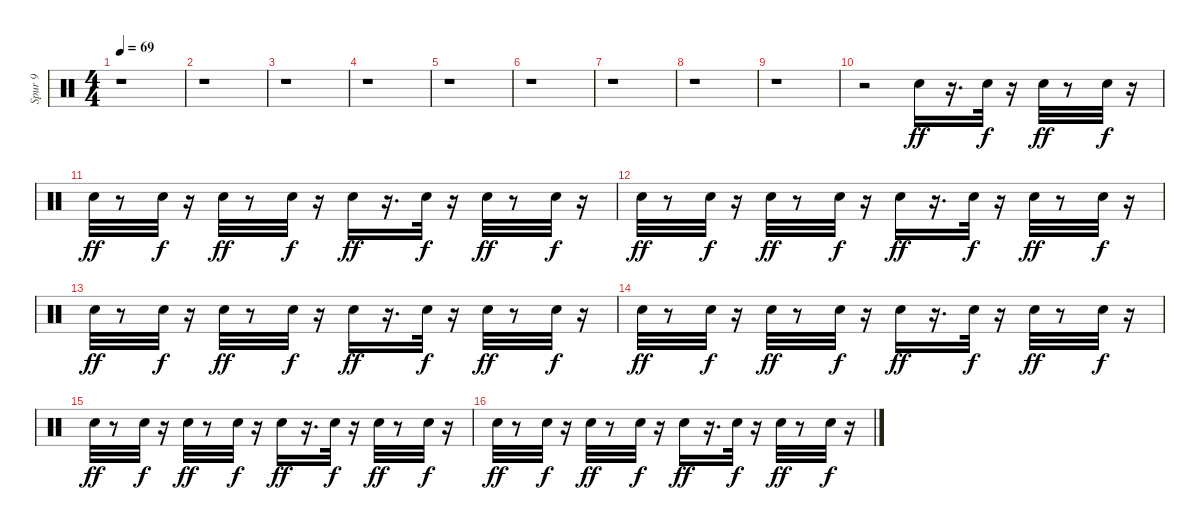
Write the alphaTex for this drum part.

\track ("Spur 9" "Spur 9") {instrument percussion}
\staff {score}
\articulation defaults
\ts (4 4)
\tempo 69
\clef neutral
\ks c
r.1{dy ff} |
r.1 |
r.1 |
r.1 |
r.1 |
r.1 |
r.1 |
r.1 |
r.1 |
r.2 "Electric Snare (hit)".16 r.16{d} "Electric Snare (hit)".32{dy f} r.16 "Electric Snare (hit)".32{dy ff} r.8 "Electric Snare (hit)".32{dy f} r.16 |
"Electric Snare (hit)".32{dy ff} r.8 "Electric Snare (hit)".32{dy f} r.16 "Electric Snare (hit)".32{dy ff} r.8 "Electric Snare (hit)".32{dy f} r.16 "Electric Snare (hit)".16{dy ff} r.16{d} "Electric Snare (hit)".32{dy f} r.16 "Electric Snare (hit)".32{dy ff} r.8 "Electric Snare (hit)".32{dy f} r.16 |
"Electric Snare (hit)".32{dy ff} r.8 "Electric Snare (hit)".32{dy f} r.16 "Electric Snare (hit)".32{dy ff} r.8 "Electric Snare (hit)".32{dy f} r.16 "Electric Snare (hit)".16{dy ff} r.16{d} "Electric Snare (hit)".32{dy f} r.16 "Electric Snare (hit)".32{dy ff} r.8 "Electric Snare (hit)".32{dy f} r.16 |
"Electric Snare (hit)".32{dy ff} r.8 "Electric Snare (hit)".32{dy f} r.16 "Electric Snare (hit)".32{dy ff} r.8 "Electric Snare (hit)".32{dy f} r.16 "Electric Snare (hit)".16{dy ff} r.16{d} "Electric Snare (hit)".32{dy f} r.16 "Electric Snare (hit)".32{dy ff} r.8 "Electric Snare (hit)".32{dy f} r.16 |
"Electric Snare (hit)".32{dy ff} r.8 "Electric Snare (hit)".32{dy f} r.16 "Electric Snare (hit)".32{dy ff} r.8 "Electric Snare (hit)".32{dy f} r.16 "Electric Snare (hit)".16{dy ff} r.16{d} "Electric Snare (hit)".32{dy f} r.16 "Electric Snare (hit)".32{dy ff} r.8 "Electric Snare (hit)".32{dy f} r.16 |
"Electric Snare (hit)".32{dy ff} r.8 "Electric Snare (hit)".32{dy f} r.16 "Electric Snare (hit)".32{dy ff} r.8 "Electric Snare (hit)".32{dy f} r.16 "Electric Snare (hit)".16{dy ff} r.16{d} "Electric Snare (hit)".32{dy f} r.16 "Electric Snare (hit)".32{dy ff} r.8 "Electric Snare (hit)".32{dy f} r.16 |
"Electric Snare (hit)".32{dy ff} r.8 "Electric Snare (hit)".32{dy f} r.16 "Electric Snare (hit)".32{dy ff} r.8 "Electric Snare (hit)".32{dy f} r.16 "Electric Snare (hit)".16{dy ff} r.16{d} "Electric Snare (hit)".32{dy f} r.16 "Electric Snare (hit)".32{dy ff} r.8 "Electric Snare (hit)".32{dy f} r.16
